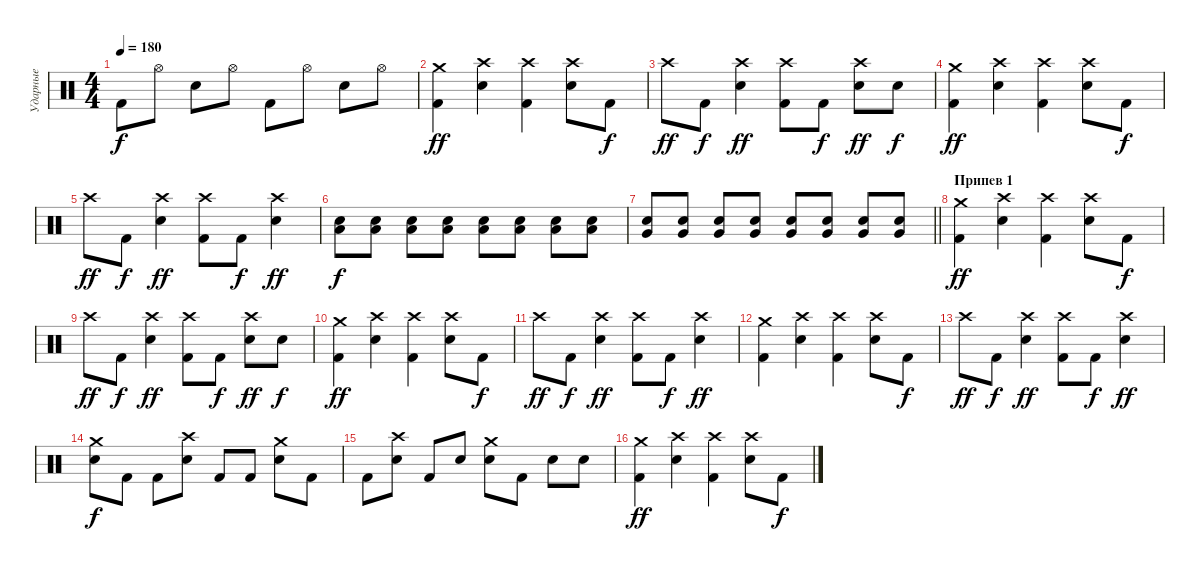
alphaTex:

\track ("Ударные" "Ударные") {instrument percussion}
\staff {score}
\articulation defaults
\ts (4 4)
\tempo 180
\clef neutral
\ks c "Kick (hit) 2".8{dy f} "Hi-Hat (open)".8 "Snare (hit) 2".8 "Hi-Hat (open)".8 "Kick (hit) 2".8 "Hi-Hat (open)".8 "Snare (hit) 2".8 "Hi-Hat (open)".8
|
("Crash medium (hit)" "Kick (hit) 2").4{dy ff} ("Crash high (hit)" "Snare (hit) 2").4 ("Crash high (hit)" "Kick (hit) 2").4 ("Crash high (hit)" "Snare (hit) 2").8 "Kick (hit) 2".8{dy f} |
"Crash high (hit)".8{dy ff} "Kick (hit) 2".8{dy f} ("Crash high (hit)" "Snare (hit) 2").4{dy ff} ("Crash high (hit)" "Kick (hit) 2").8 "Kick (hit) 2".8{dy f} ("Crash high (hit)" "Snare (hit) 2").8{dy ff} "Snare (hit) 2".8{dy f} |
("Crash medium (hit)" "Kick (hit) 2").4{dy ff} ("Crash high (hit)" "Snare (hit) 2").4 ("Crash high (hit)" "Kick (hit) 2").4 ("Crash high (hit)" "Snare (hit) 2").8 "Kick (hit) 2".8{dy f} |
"Crash high (hit)".8{dy ff} "Kick (hit) 2".8{dy f} ("Crash high (hit)" "Snare (hit) 2").4{dy ff} ("Crash high (hit)" "Kick (hit) 2").8 "Kick (hit) 2".8{dy f} ("Crash high (hit)" "Snare (hit) 2").4{dy ff} |
("Low Tom (hit)" "Snare (hit) 2").8{dy f} ("Low Tom (hit)" "Snare (hit) 2").8 ("Low Tom (hit)" "Snare (hit) 2").8 ("Low Tom (hit)" "Snare (hit) 2").8 ("Low Tom (hit)" "Snare (hit) 2").8 ("Low Tom (hit)" "Snare (hit) 2").8 ("Low Tom (hit)" "Snare (hit) 2").8 ("Low Tom (hit)" "Snare (hit) 2").8 |
\barLineRight lightlight
("Snare (hit) 2" "Very Low Tom (hit)").8 ("Snare (hit) 2" "Very Low Tom (hit)").8 ("Snare (hit) 2" "Very Low Tom (hit)").8 ("Snare (hit) 2" "Very Low Tom (hit)").8 ("Snare (hit) 2" "Very Low Tom (hit)").8 ("Snare (hit) 2" "Very Low Tom (hit)").8 ("Snare (hit) 2" "Very Low Tom (hit)").8 ("Snare (hit) 2" "Very Low Tom (hit)").8 |
\section ("" "Припев 1")
("Crash medium (hit)" "Kick (hit) 2").4{dy ff} ("Crash high (hit)" "Snare (hit) 2").4 ("Crash high (hit)" "Kick (hit) 2").4 ("Crash high (hit)" "Snare (hit) 2").8 "Kick (hit) 2".8{dy f} |
"Crash high (hit)".8{dy ff} "Kick (hit) 2".8{dy f} ("Crash high (hit)" "Snare (hit) 2").4{dy ff} ("Crash high (hit)" "Kick (hit) 2").8 "Kick (hit) 2".8{dy f} ("Crash high (hit)" "Snare (hit) 2").8{dy ff} "Snare (hit) 2".8{dy f} |
("Crash medium (hit)" "Kick (hit) 2").4{dy ff} ("Crash high (hit)" "Snare (hit) 2").4 ("Crash high (hit)" "Kick (hit) 2").4 ("Crash high (hit)" "Snare (hit) 2").8 "Kick (hit) 2".8{dy f} |
"Crash high (hit)".8{dy ff} "Kick (hit) 2".8{dy f} ("Crash high (hit)" "Snare (hit) 2").4{dy ff} ("Crash high (hit)" "Kick (hit) 2").8 "Kick (hit) 2".8{dy f} ("Crash high (hit)" "Snare (hit) 2").4{dy ff} |
("Crash medium (hit)" "Kick (hit) 2").4 ("Crash high (hit)" "Snare (hit) 2").4 ("Crash high (hit)" "Kick (hit) 2").4 ("Crash high (hit)" "Snare (hit) 2").8 "Kick (hit) 2".8{dy f} |
"Crash high (hit)".8{dy ff} "Kick (hit) 2".8{dy f} ("Crash high (hit)" "Snare (hit) 2").4{dy ff} ("Crash high (hit)" "Kick (hit) 2").8 "Kick (hit) 2".8{dy f} ("Crash high (hit)" "Snare (hit) 2").4{dy ff} |
("Crash medium (hit)" "Snare (hit) 2").8{dy f} "Kick (hit) 2".8 "Kick (hit) 2".8 ("Crash high (hit)" "Snare (hit) 2").8 "Kick (hit) 2".8 "Kick (hit) 2".8 ("Crash medium (hit)" "Snare (hit) 2").8 "Kick (hit) 2".8 |
"Kick (hit) 2".8 ("Crash high (hit)" "Snare (hit) 2").8 "Kick (hit) 2".8 "Snare (hit)".8 ("Crash medium (hit)" "Snare (hit) 2").8 "Kick (hit) 2".8 "Snare (hit) 2".8 "Snare (hit) 2".8 |
("Crash medium (hit)" "Kick (hit) 2").4{dy ff} ("Crash high (hit)" "Snare (hit) 2").4 ("Crash high (hit)" "Kick (hit) 2").4 ("Crash high (hit)" "Snare (hit) 2").8 "Kick (hit) 2".8{dy f}
